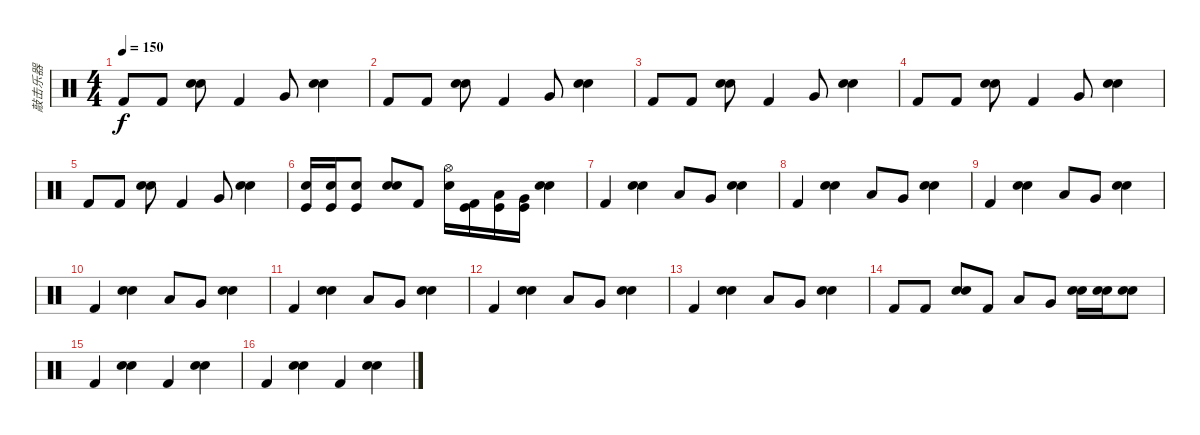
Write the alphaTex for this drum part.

\track ("敲击乐器" "敲击乐器") {instrument percussion}
\staff {score}
\articulation defaults
\ts (4 4)
\tempo 150
\clef neutral
\ks c "Kick (hit) 2".8{dy f} "Kick (hit) 2".8
("Electric Snare (hit)" "Snare (hit) 2").8 "Kick (hit) 2".4 "Very Low Tom (hit)".8 ("Electric Snare (hit)" "Snare (hit) 2").4 |
"Kick (hit) 2".8 "Kick (hit) 2".8 ("Electric Snare (hit)" "Snare (hit) 2").8 "Kick (hit) 2".4 "Very Low Tom (hit)".8 ("Electric Snare (hit)" "Snare (hit) 2").4 |
"Kick (hit) 2".8 "Kick (hit) 2".8 ("Electric Snare (hit)" "Snare (hit) 2").8 "Kick (hit) 2".4 "Very Low Tom (hit)".8 ("Electric Snare (hit)" "Snare (hit) 2").4 |
"Kick (hit) 2".8 "Kick (hit) 2".8 ("Electric Snare (hit)" "Snare (hit) 2").8 "Kick (hit) 2".4 "Very Low Tom (hit)".8 ("Electric Snare (hit)" "Snare (hit) 2").4 |
"Kick (hit) 2".8 "Kick (hit) 2".8 ("Electric Snare (hit)" "Snare (hit) 2").8 "Kick (hit) 2".4 "Very Low Tom (hit)".8 ("Electric Snare (hit)" "Snare (hit) 2").4 |
("Snare (hit) 2" "Kick (hit)").16 ("Snare (hit) 2" "Kick (hit)").16 ("Snare (hit) 2" "Kick (hit)").8 ("Electric Snare (hit)" "Snare (hit) 2").8 "Kick (hit) 2".8 ("Hi-Hat (open)" "Snare (hit) 2").16 ("Kick (hit) 2" "Kick (hit)").16 ("Low Tom (hit)" "Kick (hit)").16 ("Very Low Tom (hit)" "Kick (hit)").16 ("Electric Snare (hit)" "Snare (hit) 2").4 |
"Kick (hit) 2".4 ("Electric Snare (hit)" "Snare (hit) 2").4 "Low Tom (hit)".8 "Very Low Tom (hit)".8 ("Electric Snare (hit)" "Snare (hit) 2").4 |
"Kick (hit) 2".4 ("Electric Snare (hit)" "Snare (hit) 2").4 "Low Tom (hit)".8 "Very Low Tom (hit)".8 ("Electric Snare (hit)" "Snare (hit) 2").4 |
"Kick (hit) 2".4 ("Electric Snare (hit)" "Snare (hit) 2").4 "Low Tom (hit)".8 "Very Low Tom (hit)".8 ("Electric Snare (hit)" "Snare (hit) 2").4 |
"Kick (hit) 2".4 ("Electric Snare (hit)" "Snare (hit) 2").4 "Low Tom (hit)".8 "Very Low Tom (hit)".8 ("Electric Snare (hit)" "Snare (hit) 2").4 |
"Kick (hit) 2".4 ("Electric Snare (hit)" "Snare (hit) 2").4 "Low Tom (hit)".8 "Very Low Tom (hit)".8 ("Electric Snare (hit)" "Snare (hit) 2").4 |
"Kick (hit) 2".4 ("Electric Snare (hit)" "Snare (hit) 2").4 "Low Tom (hit)".8 "Very Low Tom (hit)".8 ("Electric Snare (hit)" "Snare (hit) 2").4 |
"Kick (hit) 2".4 ("Electric Snare (hit)" "Snare (hit) 2").4 "Low Tom (hit)".8 "Very Low Tom (hit)".8 ("Electric Snare (hit)" "Snare (hit) 2").4 |
"Kick (hit) 2".8 "Kick (hit) 2".8 ("Electric Snare (hit)" "Snare (hit) 2").8 "Kick (hit) 2".8 "Low Tom (hit)".8 "Very Low Tom (hit)".8 ("Electric Snare (hit)" "Snare (hit) 2").16 ("Electric Snare (hit)" "Snare (hit) 2").16 ("Electric Snare (hit)" "Snare (hit) 2").8 |
"Kick (hit) 2".4 ("Electric Snare (hit)" "Snare (hit) 2").4 "Kick (hit) 2".4 ("Electric Snare (hit)" "Snare (hit) 2").4 |
"Kick (hit) 2".4 ("Electric Snare (hit)" "Snare (hit) 2").4 "Kick (hit) 2".4 ("Electric Snare (hit)" "Snare (hit) 2").4
